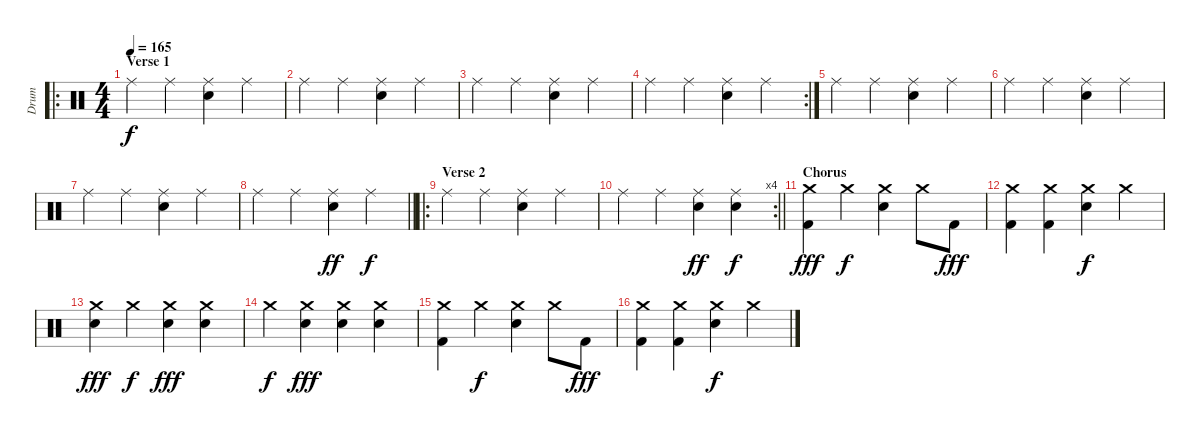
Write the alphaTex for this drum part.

\track ("Drum" "Drum") {instrument percussion}
\staff {score}
\articulation defaults
\ro
\ts (4 4)
\section ("" "Verse 1")
\tempo 165
\clef neutral
\ks c "Ride (middle)".4{dy f} "Ride (middle)".4
("Snare (hit) 2" "Ride (middle)").4 "Ride (middle)".4 |
"Ride (middle)".4 "Ride (middle)".4 ("Snare (hit) 2" "Ride (middle)").4 "Ride (middle)".4 |
"Ride (middle)".4 "Ride (middle)".4 ("Snare (hit) 2" "Ride (middle)").4 "Ride (middle)".4 |
\rc 2 "Ride (middle)".4 "Ride (middle)".4
("Snare (hit) 2" "Ride (middle)").4 "Ride (middle)".4 |
"Ride (middle)".4 "Ride (middle)".4 ("Snare (hit) 2" "Ride (middle)").4 "Ride (middle)".4 |
"Ride (middle)".4 "Ride (middle)".4 ("Snare (hit) 2" "Ride (middle)").4 "Ride (middle)".4 |
"Ride (middle)".4 "Ride (middle)".4 ("Snare (hit) 2" "Ride (middle)").4 "Ride (middle)".4 |
\barLineRight lightlight "Ride (middle)".4 "Ride (middle)".4
("Snare (hit) 2" "Ride (middle)").4{dy ff} "Ride (middle)".4{dy f} |
\ro
\section ("" "Verse 2")
"Ride (middle)".4 "Ride (middle)".4 ("Snare (hit) 2" "Ride (middle)").4 "Ride (middle)".4 |
\rc 4
\barLineRight lightlight "Ride (middle)".4 "Ride (middle)".4
("Snare (hit) 2" "Ride (middle)").4{dy ff} ("Snare (hit) 2" "Ride (middle)").4{dy f} |
\section ("" "Chorus")
("Kick (hit) 2" "Crash medium (hit)").4{dy fff} "Crash medium (hit)".4{dy f} ("Snare (hit) 2" "Crash medium (hit)").4 "Crash medium (hit)".8 "Kick (hit) 2".8{dy fff} |
("Kick (hit) 2" "Crash medium (hit)").4 ("Kick (hit) 2" "Crash medium (hit)").4 ("Snare (hit) 2" "Crash medium (hit)").4{dy f} "Crash medium (hit)".4 |
("Snare (hit) 2" "Crash medium (hit)").4{dy fff} "Crash medium (hit)".4{dy f} ("Snare (hit) 2" "Crash medium (hit)").4{dy fff} ("Snare (hit) 2" "Crash medium (hit)").4 |
"Crash medium (hit)".4{dy f} ("Snare (hit) 2" "Crash medium (hit)").4{dy fff} ("Snare (hit) 2" "Crash medium (hit)").4 ("Snare (hit) 2" "Crash medium (hit)").4 |
("Kick (hit) 2" "Crash medium (hit)").4 "Crash medium (hit)".4{dy f} ("Snare (hit) 2" "Crash medium (hit)").4 "Crash medium (hit)".8 "Kick (hit) 2".8{dy fff} |
("Kick (hit) 2" "Crash medium (hit)").4 ("Kick (hit) 2" "Crash medium (hit)").4 ("Snare (hit) 2" "Crash medium (hit)").4{dy f} "Crash medium (hit)".4
